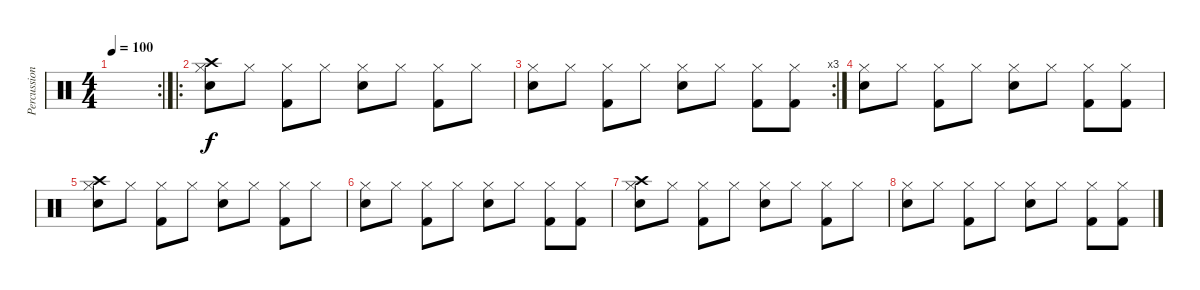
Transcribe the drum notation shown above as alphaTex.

\track ("Percussions" "Percussion") {instrument percussion}
\staff {score}
\articulation defaults
\rc 2
\ts (4 4)
\tempo 100
\clef neutral
\ks c
|
\ro
("Crash high (hit)" "Hi-Hat (closed)" "Electric Snare (hit)").8 "Hi-Hat (closed)".8 ("Hi-Hat (closed)" "Kick (hit) 2").8 "Hi-Hat (closed)".8 ("Hi-Hat (closed)" "Electric Snare (hit)").8 "Hi-Hat (closed)".8 ("Hi-Hat (closed)" "Kick (hit) 2").8 "Hi-Hat (closed)".8 |
\rc 3
("Hi-Hat (closed)" "Electric Snare (hit)").8 "Hi-Hat (closed)".8 ("Hi-Hat (closed)" "Kick (hit) 2").8 "Hi-Hat (closed)".8 ("Hi-Hat (closed)" "Electric Snare (hit)").8 "Hi-Hat (closed)".8 ("Hi-Hat (closed)" "Kick (hit) 2").8 ("Hi-Hat (closed)" "Kick (hit) 2").8 |
("Hi-Hat (closed)" "Electric Snare (hit)").8 "Hi-Hat (closed)".8 ("Hi-Hat (closed)" "Kick (hit) 2").8 "Hi-Hat (closed)".8 ("Hi-Hat (closed)" "Electric Snare (hit)").8 "Hi-Hat (closed)".8 ("Hi-Hat (closed)" "Kick (hit) 2").8 ("Hi-Hat (closed)" "Kick (hit) 2").8 |
("Crash high (hit)" "Hi-Hat (closed)" "Electric Snare (hit)").8 "Hi-Hat (closed)".8 ("Hi-Hat (closed)" "Kick (hit) 2").8 "Hi-Hat (closed)".8 ("Hi-Hat (closed)" "Electric Snare (hit)").8 "Hi-Hat (closed)".8 ("Hi-Hat (closed)" "Kick (hit) 2").8 "Hi-Hat (closed)".8 |
("Hi-Hat (closed)" "Electric Snare (hit)").8 "Hi-Hat (closed)".8 ("Hi-Hat (closed)" "Kick (hit) 2").8 "Hi-Hat (closed)".8 ("Hi-Hat (closed)" "Electric Snare (hit)").8 "Hi-Hat (closed)".8 ("Hi-Hat (closed)" "Kick (hit) 2").8 ("Hi-Hat (closed)" "Kick (hit) 2").8 |
("Crash high (hit)" "Hi-Hat (closed)" "Electric Snare (hit)").8 "Hi-Hat (closed)".8 ("Hi-Hat (closed)" "Kick (hit) 2").8 "Hi-Hat (closed)".8 ("Hi-Hat (closed)" "Electric Snare (hit)").8 "Hi-Hat (closed)".8 ("Hi-Hat (closed)" "Kick (hit) 2").8 "Hi-Hat (closed)".8 |
("Hi-Hat (closed)" "Electric Snare (hit)").8 "Hi-Hat (closed)".8 ("Hi-Hat (closed)" "Kick (hit) 2").8 "Hi-Hat (closed)".8 ("Hi-Hat (closed)" "Electric Snare (hit)").8 "Hi-Hat (closed)".8 ("Hi-Hat (closed)" "Kick (hit) 2").8 ("Hi-Hat (closed)" "Kick (hit) 2").8
